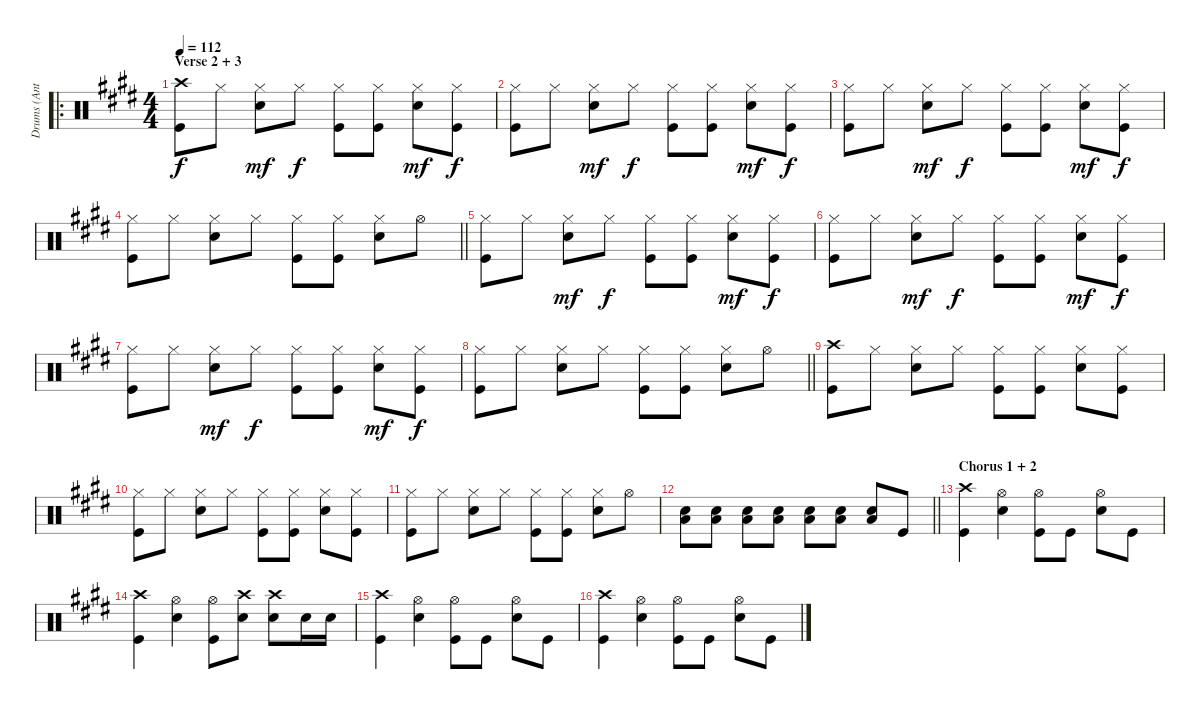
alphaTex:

\track ("Drums (Ant)" "Drums (Ant") {instrument percussion}
\staff {score}
\articulation defaults
\ro
\ts (4 4)
\section ("" "Verse 2 + 3")
\tempo 112
\clef neutral
\ks e
("Crash high (hit)" "Kick (hit)").8{dy f} "Hi-Hat (closed)".8 ("Hi-Hat (closed)" "Snare (hit) 2").8{dy mf} "Hi-Hat (closed)".8{dy f} ("Hi-Hat (closed)" "Kick (hit)").8 ("Hi-Hat (closed)" "Kick (hit)").8 ("Hi-Hat (closed)" "Snare (hit) 2").8{dy mf} ("Hi-Hat (closed)" "Kick (hit)").8{dy f} |
("Hi-Hat (closed)" "Kick (hit)").8 "Hi-Hat (closed)".8 ("Hi-Hat (closed)" "Snare (hit) 2").8{dy mf} "Hi-Hat (closed)".8{dy f} ("Hi-Hat (closed)" "Kick (hit)").8 ("Hi-Hat (closed)" "Kick (hit)").8 ("Hi-Hat (closed)" "Snare (hit) 2").8{dy mf} ("Hi-Hat (closed)" "Kick (hit)").8{dy f} |
("Hi-Hat (closed)" "Kick (hit)").8 "Hi-Hat (closed)".8 ("Hi-Hat (closed)" "Snare (hit) 2").8{dy mf} "Hi-Hat (closed)".8{dy f} ("Hi-Hat (closed)" "Kick (hit)").8 ("Hi-Hat (closed)" "Kick (hit)").8 ("Hi-Hat (closed)" "Snare (hit) 2").8{dy mf} ("Hi-Hat (closed)" "Kick (hit)").8{dy f} |
\barLineRight lightlight
("Hi-Hat (closed)" "Kick (hit)").8 "Hi-Hat (closed)".8 ("Hi-Hat (closed)" "Snare (hit) 2").8 "Hi-Hat (closed)".8 ("Hi-Hat (closed)" "Kick (hit)").8 ("Hi-Hat (closed)" "Kick (hit)").8 ("Hi-Hat (closed)" "Snare (hit) 2").8 "Hi-Hat (open)".8 |
("Hi-Hat (closed)" "Kick (hit)").8 "Hi-Hat (closed)".8 ("Hi-Hat (closed)" "Snare (hit) 2").8{dy mf} "Hi-Hat (closed)".8{dy f} ("Hi-Hat (closed)" "Kick (hit)").8 ("Hi-Hat (closed)" "Kick (hit)").8 ("Hi-Hat (closed)" "Snare (hit) 2").8{dy mf} ("Hi-Hat (closed)" "Kick (hit)").8{dy f} |
("Hi-Hat (closed)" "Kick (hit)").8 "Hi-Hat (closed)".8 ("Hi-Hat (closed)" "Snare (hit) 2").8{dy mf} "Hi-Hat (closed)".8{dy f} ("Hi-Hat (closed)" "Kick (hit)").8 ("Hi-Hat (closed)" "Kick (hit)").8 ("Hi-Hat (closed)" "Snare (hit) 2").8{dy mf} ("Hi-Hat (closed)" "Kick (hit)").8{dy f} |
("Hi-Hat (closed)" "Kick (hit)").8 "Hi-Hat (closed)".8 ("Hi-Hat (closed)" "Snare (hit) 2").8{dy mf} "Hi-Hat (closed)".8{dy f} ("Hi-Hat (closed)" "Kick (hit)").8 ("Hi-Hat (closed)" "Kick (hit)").8 ("Hi-Hat (closed)" "Snare (hit) 2").8{dy mf} ("Hi-Hat (closed)" "Kick (hit)").8{dy f} |
\barLineRight lightlight
("Hi-Hat (closed)" "Kick (hit)").8 "Hi-Hat (closed)".8 ("Hi-Hat (closed)" "Snare (hit) 2").8 "Hi-Hat (closed)".8 ("Hi-Hat (closed)" "Kick (hit)").8 ("Hi-Hat (closed)" "Kick (hit)").8 ("Hi-Hat (closed)" "Snare (hit) 2").8 "Hi-Hat (open)".8 |
("Crash high (hit)" "Kick (hit)").8 "Hi-Hat (closed)".8 ("Hi-Hat (closed)" "Snare (hit) 2").8 "Hi-Hat (closed)".8 ("Hi-Hat (closed)" "Kick (hit)").8 ("Hi-Hat (closed)" "Kick (hit)").8 ("Hi-Hat (closed)" "Snare (hit) 2").8 ("Hi-Hat (closed)" "Kick (hit)").8 |
("Hi-Hat (closed)" "Kick (hit)").8 "Hi-Hat (closed)".8 ("Hi-Hat (closed)" "Snare (hit) 2").8 "Hi-Hat (closed)".8 ("Hi-Hat (closed)" "Kick (hit)").8 ("Hi-Hat (closed)" "Kick (hit)").8 ("Hi-Hat (closed)" "Snare (hit) 2").8 ("Hi-Hat (closed)" "Kick (hit)").8 |
("Hi-Hat (closed)" "Kick (hit)").8 "Hi-Hat (closed)".8 ("Hi-Hat (closed)" "Snare (hit) 2").8 "Hi-Hat (closed)".8 ("Hi-Hat (closed)" "Kick (hit)").8 ("Hi-Hat (closed)" "Kick (hit)").8 ("Hi-Hat (closed)" "Snare (hit) 2").8 "Hi-Hat (open)".8 |
\barLineRight lightlight
("Low Floor Tom (hit)" "Snare (hit) 2").8 ("Low Floor Tom (hit)" "Snare (hit) 2").8 ("Low Floor Tom (hit)" "Snare (hit) 2").8 ("Low Floor Tom (hit)" "Snare (hit) 2").8 ("Low Floor Tom (hit)" "Snare (hit) 2").8 ("Low Floor Tom (hit)" "Snare (hit) 2").8 ("Low Floor Tom (hit)" "Snare (hit) 2").8 "Kick (hit)".8 |
\section ("" "Chorus 1 + 2")
("Crash high (hit)" "Kick (hit)").4 ("Hi-Hat (open)" "Snare (hit) 2").4 ("Hi-Hat (open)" "Kick (hit)").8 "Kick (hit)".8 ("Hi-Hat (open)" "Snare (hit) 2").8 "Kick (hit)".8 |
("Crash high (hit)" "Kick (hit)").4 ("Hi-Hat (open)" "Snare (hit) 2").4 ("Hi-Hat (open)" "Kick (hit)").8 ("Crash high (hit)" "Snare (hit) 2").8 ("Crash high (hit)" "Snare (hit) 2").8 "Snare (hit) 2".16 "Snare (hit) 2".16 |
("Crash high (hit)" "Kick (hit)").4 ("Hi-Hat (open)" "Snare (hit) 2").4 ("Hi-Hat (open)" "Kick (hit)").8 "Kick (hit)".8 ("Hi-Hat (open)" "Snare (hit) 2").8 "Kick (hit)".8 |
("Crash high (hit)" "Kick (hit)").4 ("Hi-Hat (open)" "Snare (hit) 2").4 ("Hi-Hat (open)" "Kick (hit)").8 "Kick (hit)".8 ("Hi-Hat (open)" "Snare (hit) 2").8 "Kick (hit)".8
